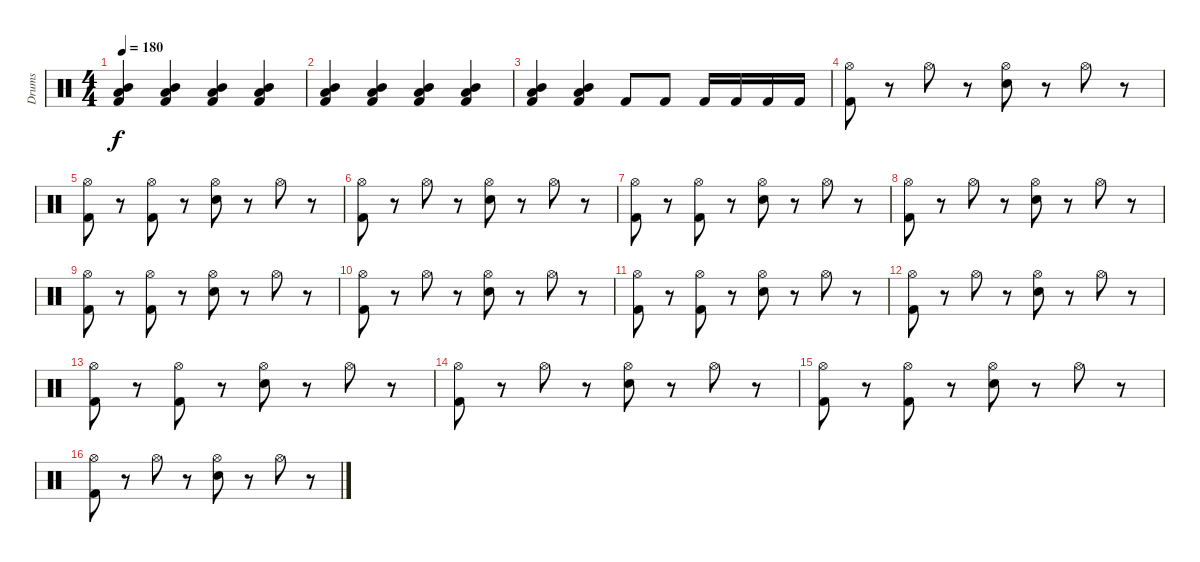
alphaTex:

\track ("Drums" "Drums") {instrument percussion}
\staff {score}
\articulation defaults
\ts (4 4)
\tempo 180
\clef neutral
\ks c
("Mid Tom (hit)" "Low Tom (hit)" "Kick (hit) 2").4{dy f} ("Mid Tom (hit)" "Low Tom (hit)" "Kick (hit) 2").4 ("Mid Tom (hit)" "Low Tom (hit)" "Kick (hit) 2").4 ("Mid Tom (hit)" "Low Tom (hit)" "Kick (hit) 2").4 |
("Mid Tom (hit)" "Low Tom (hit)" "Kick (hit) 2").4 ("Mid Tom (hit)" "Low Tom (hit)" "Kick (hit) 2").4 ("Mid Tom (hit)" "Low Tom (hit)" "Kick (hit) 2").4 ("Mid Tom (hit)" "Low Tom (hit)" "Kick (hit) 2").4 |
("Mid Tom (hit)" "Low Tom (hit)" "Kick (hit) 2").4 ("Mid Tom (hit)" "Low Tom (hit)" "Kick (hit) 2").4 "Kick (hit) 2".8 "Kick (hit) 2".8 "Kick (hit) 2".16 "Kick (hit) 2".16 "Kick (hit) 2".16 "Kick (hit) 2".16 |
("Hi-Hat (open)" "Kick (hit) 2").8 r.8 "Hi-Hat (open)".8 r.8 ("Hi-Hat (open)" "Electric Snare (hit)").8 r.8 "Hi-Hat (open)".8 r.8 |
("Hi-Hat (open)" "Kick (hit) 2").8 r.8 ("Hi-Hat (open)" "Kick (hit) 2").8 r.8 ("Hi-Hat (open)" "Electric Snare (hit)").8 r.8 "Hi-Hat (open)".8 r.8 |
("Hi-Hat (open)" "Kick (hit) 2").8 r.8 "Hi-Hat (open)".8 r.8 ("Hi-Hat (open)" "Electric Snare (hit)").8 r.8 "Hi-Hat (open)".8 r.8 |
("Hi-Hat (open)" "Kick (hit) 2").8 r.8 ("Hi-Hat (open)" "Kick (hit) 2").8 r.8 ("Hi-Hat (open)" "Electric Snare (hit)").8 r.8 "Hi-Hat (open)".8 r.8 |
("Hi-Hat (open)" "Kick (hit) 2").8 r.8 "Hi-Hat (open)".8 r.8 ("Hi-Hat (open)" "Electric Snare (hit)").8 r.8 "Hi-Hat (open)".8 r.8 |
("Hi-Hat (open)" "Kick (hit) 2").8 r.8 ("Hi-Hat (open)" "Kick (hit) 2").8 r.8 ("Hi-Hat (open)" "Electric Snare (hit)").8 r.8 "Hi-Hat (open)".8 r.8 |
("Hi-Hat (open)" "Kick (hit) 2").8 r.8 "Hi-Hat (open)".8 r.8 ("Hi-Hat (open)" "Electric Snare (hit)").8 r.8 "Hi-Hat (open)".8 r.8 |
("Hi-Hat (open)" "Kick (hit) 2").8 r.8 ("Hi-Hat (open)" "Kick (hit) 2").8 r.8 ("Hi-Hat (open)" "Electric Snare (hit)").8 r.8 "Hi-Hat (open)".8 r.8 |
("Hi-Hat (open)" "Kick (hit) 2").8 r.8 "Hi-Hat (open)".8 r.8 ("Hi-Hat (open)" "Electric Snare (hit)").8 r.8 "Hi-Hat (open)".8 r.8 |
("Hi-Hat (open)" "Kick (hit) 2").8 r.8 ("Hi-Hat (open)" "Kick (hit) 2").8 r.8 ("Hi-Hat (open)" "Electric Snare (hit)").8 r.8 "Hi-Hat (open)".8 r.8 |
("Hi-Hat (open)" "Kick (hit) 2").8 r.8 "Hi-Hat (open)".8 r.8 ("Hi-Hat (open)" "Electric Snare (hit)").8 r.8 "Hi-Hat (open)".8 r.8 |
("Hi-Hat (open)" "Kick (hit) 2").8 r.8 ("Hi-Hat (open)" "Kick (hit) 2").8 r.8 ("Hi-Hat (open)" "Electric Snare (hit)").8 r.8 "Hi-Hat (open)".8 r.8 |
("Hi-Hat (open)" "Kick (hit) 2").8 r.8 "Hi-Hat (open)".8 r.8 ("Hi-Hat (open)" "Electric Snare (hit)").8 r.8 "Hi-Hat (open)".8 r.8
